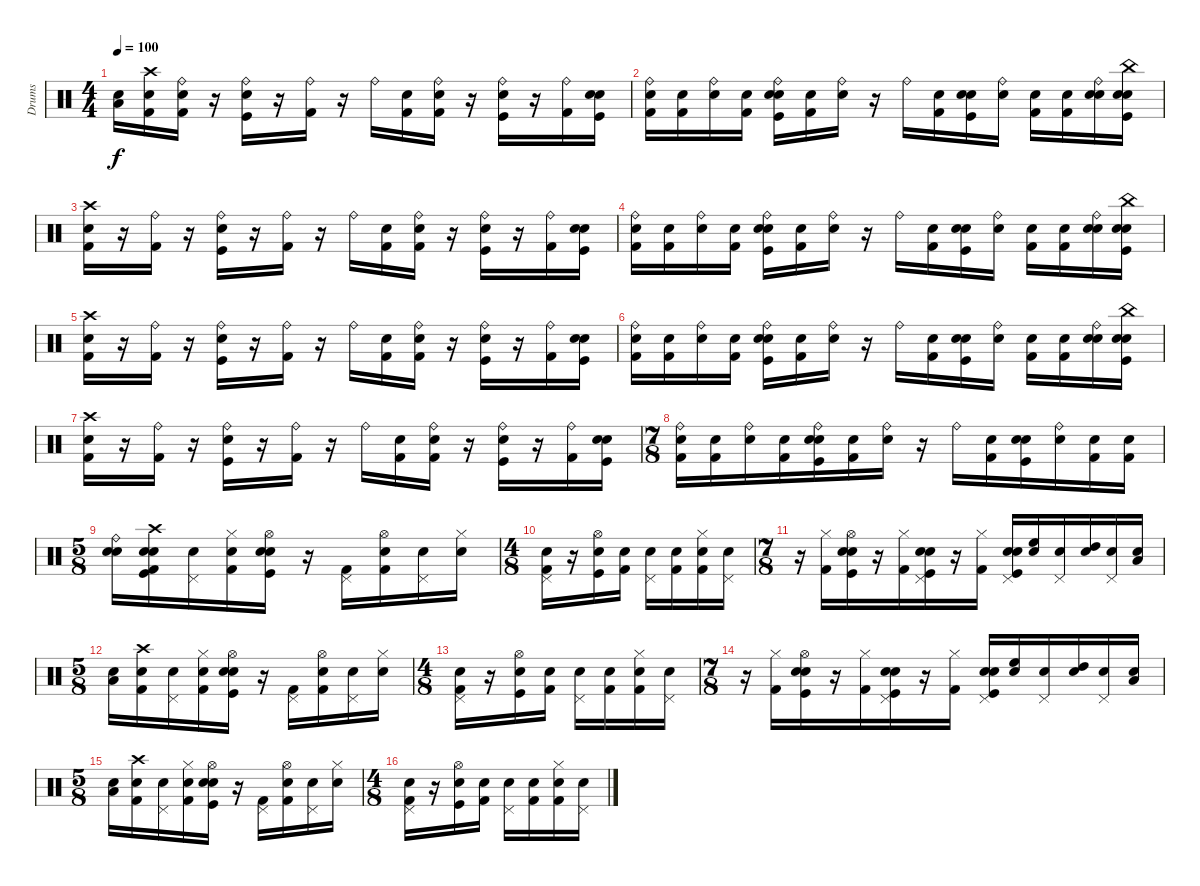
\track ("Drums" "Drums") {instrument percussion}
\staff {score}
\articulation defaults
\ts (4 4)
\tempo 100
\clef neutral
\ks c
("Snare (hit)" "Low Floor Tom (hit)").16{dy f} ("Snare (hit)" "Kick (hit) 2" "Crash high (hit)").16 ("Snare (hit)" "Ride (bell)" "Kick (hit) 2").16 r.16 ("Ride (bell)" "Kick (hit)" "Electric Snare (hit)").16 r.16 ("Ride (bell)" "Kick (hit) 2").16 r.16 "Ride (bell)".16 ("Snare (hit)" "Kick (hit) 2").16 ("Snare (hit)" "Kick (hit) 2" "Ride (bell)").16 r.16 ("Ride (bell)" "Kick (hit)" "Electric Snare (hit)").16 r.16 ("Ride (bell)" "Kick (hit) 2").16 ("Snare (hit)" "Kick (hit)" "Electric Snare (hit)").16 |
("Snare (hit)" "Kick (hit) 2" "Ride (bell)").16 ("Snare (hit)" "Kick (hit) 2").16 ("Snare (hit)" "Ride (bell)").16 ("Snare (hit)" "Kick (hit) 2").16 ("Snare (hit)" "Ride (bell)" "Kick (hit)" "Electric Snare (hit)").16 ("Snare (hit)" "Kick (hit) 2").16 ("Snare (hit)" "Ride (bell)").16 r.16 "Ride (bell)".16 ("Snare (hit)" "Kick (hit) 2").16 ("Snare (hit)" "Kick (hit)" "Electric Snare (hit)").16 ("Snare (hit)" "Ride (bell)").16 ("Snare (hit)" "Kick (hit) 2").16 ("Snare (hit)" "Kick (hit) 2").16 ("Snare (hit)" "Snare (hit) 2" "Ride (bell)").16 ("Snare (hit)" "Kick (hit)" "Electric Snare (hit)" "China (hit)").16 |
("Snare (hit)" "Kick (hit) 2" "Crash high (hit)").16 r.16 ("Ride (bell)" "Kick (hit) 2").16 r.16 ("Ride (bell)" "Kick (hit)" "Electric Snare (hit)").16 r.16 ("Ride (bell)" "Kick (hit) 2").16 r.16 "Ride (bell)".16 ("Snare (hit)" "Kick (hit) 2").16 ("Snare (hit)" "Kick (hit) 2" "Ride (bell)").16 r.16 ("Ride (bell)" "Kick (hit)" "Electric Snare (hit)").16 r.16 ("Ride (bell)" "Kick (hit) 2").16 ("Snare (hit)" "Kick (hit)" "Electric Snare (hit)").16 |
("Snare (hit)" "Kick (hit) 2" "Ride (bell)").16 ("Snare (hit)" "Kick (hit) 2").16 ("Snare (hit)" "Ride (bell)").16 ("Snare (hit)" "Kick (hit) 2").16 ("Snare (hit)" "Ride (bell)" "Kick (hit)" "Electric Snare (hit)").16 ("Snare (hit)" "Kick (hit) 2").16 ("Snare (hit)" "Ride (bell)").16 r.16 "Ride (bell)".16 ("Snare (hit)" "Kick (hit) 2").16 ("Snare (hit)" "Kick (hit)" "Electric Snare (hit)").16 ("Snare (hit)" "Ride (bell)").16 ("Snare (hit)" "Kick (hit) 2").16 ("Snare (hit)" "Kick (hit) 2").16 ("Snare (hit)" "Snare (hit) 2" "Ride (bell)").16 ("Snare (hit)" "Kick (hit)" "Electric Snare (hit)" "China (hit)").16 |
("Snare (hit)" "Kick (hit) 2" "Crash high (hit)").16 r.16 ("Ride (bell)" "Kick (hit) 2").16 r.16 ("Ride (bell)" "Kick (hit)" "Electric Snare (hit)").16 r.16 ("Ride (bell)" "Kick (hit) 2").16 r.16 "Ride (bell)".16 ("Snare (hit)" "Kick (hit) 2").16 ("Snare (hit)" "Kick (hit) 2" "Ride (bell)").16 r.16 ("Ride (bell)" "Kick (hit)" "Electric Snare (hit)").16 r.16 ("Ride (bell)" "Kick (hit) 2").16 ("Snare (hit)" "Kick (hit)" "Electric Snare (hit)").16 |
("Snare (hit)" "Kick (hit) 2" "Ride (bell)").16 ("Snare (hit)" "Kick (hit) 2").16 ("Snare (hit)" "Ride (bell)").16 ("Snare (hit)" "Kick (hit) 2").16 ("Snare (hit)" "Ride (bell)" "Kick (hit)" "Electric Snare (hit)").16 ("Snare (hit)" "Kick (hit) 2").16 ("Snare (hit)" "Ride (bell)").16 r.16 "Ride (bell)".16 ("Snare (hit)" "Kick (hit) 2").16 ("Snare (hit)" "Kick (hit)" "Electric Snare (hit)").16 ("Snare (hit)" "Ride (bell)").16 ("Snare (hit)" "Kick (hit) 2").16 ("Snare (hit)" "Kick (hit) 2").16 ("Snare (hit)" "Snare (hit) 2" "Ride (bell)").16 ("Snare (hit)" "Kick (hit)" "Electric Snare (hit)" "China (hit)").16 |
("Snare (hit)" "Kick (hit) 2" "Crash high (hit)").16 r.16 ("Ride (bell)" "Kick (hit) 2").16 r.16 ("Ride (bell)" "Kick (hit)" "Electric Snare (hit)").16 r.16 ("Ride (bell)" "Kick (hit) 2").16 r.16 "Ride (bell)".16 ("Snare (hit)" "Kick (hit) 2").16 ("Snare (hit)" "Kick (hit) 2" "Ride (bell)").16 r.16 ("Ride (bell)" "Kick (hit)" "Electric Snare (hit)").16 r.16 ("Ride (bell)" "Kick (hit) 2").16 ("Snare (hit)" "Kick (hit)" "Electric Snare (hit)").16 |
\ts (7 8)
("Snare (hit)" "Kick (hit) 2" "Ride (bell)").16 ("Snare (hit)" "Kick (hit) 2").16 ("Snare (hit)" "Ride (bell)").16 ("Snare (hit)" "Kick (hit) 2").16 ("Snare (hit)" "Ride (bell)" "Kick (hit)" "Electric Snare (hit)").16 ("Snare (hit)" "Kick (hit) 2").16 ("Snare (hit)" "Ride (bell)").16 r.16 "Ride (bell)".16 ("Snare (hit)" "Kick (hit) 2").16 ("Snare (hit)" "Kick (hit)" "Electric Snare (hit)").16 ("Snare (hit)" "Ride (bell)").16 ("Snare (hit)" "Kick (hit) 2").16 ("Snare (hit)" "Kick (hit) 2").16 |
\ts (5 8)
("Snare (hit)" "Snare (hit) 2" "Ride (bell)").16 ("Snare (hit)" "Kick (hit)" "Electric Snare (hit)" "Crash high (hit)" "Kick (hit) 2").16 ("Snare (hit)" "Pedal Hi-Hat (hit)").16 ("Snare (hit)" "Kick (hit) 2" "Hi-Hat (closed)").16 ("Snare (hit)" "Kick (hit)" "Electric Snare (hit)" "Hi-Hat (open)").16 r.16 ("Kick (hit) 2" "Pedal Hi-Hat (hit)").16 ("Snare (hit)" "Kick (hit) 2" "Hi-Hat (open)").16 ("Snare (hit)" "Pedal Hi-Hat (hit)").16 ("Snare (hit)" "Hi-Hat (closed)").16 |
\ts (4 8)
("Snare (hit)" "Kick (hit) 2" "Pedal Hi-Hat (hit)").16 r.16 ("Hi-Hat (open)" "Kick (hit)" "Electric Snare (hit)").16 ("Snare (hit)" "Kick (hit) 2").16 ("Snare (hit)" "Pedal Hi-Hat (hit)").16 ("Snare (hit)" "Kick (hit) 2").16 ("Snare (hit)" "Hi-Hat (closed)" "Kick (hit) 2").16 ("Snare (hit)" "Pedal Hi-Hat (hit)").16 |
\ts (7 8)
r.16 ("Kick (hit) 2" "Hi-Hat (closed)").16 ("Snare (hit)" "Hi-Hat (open)" "Kick (hit)" "Electric Snare (hit)").16 r.16 ("Hi-Hat (closed)" "Kick (hit) 2").16 ("Snare (hit)" "Kick (hit)" "Electric Snare (hit)" "Pedal Hi-Hat (hit)").16 r.16 ("Hi-Hat (closed)" "Kick (hit) 2").16 ("Snare (hit)" "Pedal Hi-Hat (hit)" "Kick (hit)" "Electric Snare (hit)").16 ("Snare (hit)" "High Floor Tom (hit)").16 ("Snare (hit)" "Pedal Hi-Hat (hit)").16 ("Snare (hit)" "High Tom (hit)").16 ("Snare (hit)" "Pedal Hi-Hat (hit)").16 ("Snare (hit)" "Low Tom (hit)").16 |
\ts (5 8)
("Snare (hit)" "Low Floor Tom (hit)").16 ("Snare (hit)" "Crash high (hit)" "Kick (hit) 2").16 ("Snare (hit)" "Pedal Hi-Hat (hit)").16 ("Snare (hit)" "Kick (hit) 2" "Hi-Hat (closed)").16 ("Snare (hit)" "Kick (hit)" "Electric Snare (hit)" "Hi-Hat (open)").16 r.16 ("Kick (hit) 2" "Pedal Hi-Hat (hit)").16 ("Snare (hit)" "Kick (hit) 2" "Hi-Hat (open)").16 ("Snare (hit)" "Pedal Hi-Hat (hit)").16 ("Snare (hit)" "Hi-Hat (closed)").16 |
\ts (4 8)
("Snare (hit)" "Kick (hit) 2" "Pedal Hi-Hat (hit)").16 r.16 ("Hi-Hat (open)" "Kick (hit)" "Electric Snare (hit)").16 ("Snare (hit)" "Kick (hit) 2").16 ("Snare (hit)" "Pedal Hi-Hat (hit)").16 ("Snare (hit)" "Kick (hit) 2").16 ("Snare (hit)" "Hi-Hat (closed)" "Kick (hit) 2").16 ("Snare (hit)" "Pedal Hi-Hat (hit)").16 |
\ts (7 8)
r.16 ("Kick (hit) 2" "Hi-Hat (closed)").16 ("Snare (hit)" "Hi-Hat (open)" "Kick (hit)" "Electric Snare (hit)").16 r.16 ("Hi-Hat (closed)" "Kick (hit) 2").16 ("Snare (hit)" "Kick (hit)" "Electric Snare (hit)" "Pedal Hi-Hat (hit)").16 r.16 ("Hi-Hat (closed)" "Kick (hit) 2").16 ("Snare (hit)" "Pedal Hi-Hat (hit)" "Kick (hit)" "Electric Snare (hit)").16 ("Snare (hit)" "High Floor Tom (hit)").16 ("Snare (hit)" "Pedal Hi-Hat (hit)").16 ("Snare (hit)" "High Tom (hit)").16 ("Snare (hit)" "Pedal Hi-Hat (hit)").16 ("Snare (hit)" "Low Tom (hit)").16 |
\ts (5 8)
("Snare (hit)" "Low Floor Tom (hit)").16 ("Snare (hit)" "Crash high (hit)" "Kick (hit) 2").16 ("Snare (hit)" "Pedal Hi-Hat (hit)").16 ("Snare (hit)" "Kick (hit) 2" "Hi-Hat (closed)").16 ("Snare (hit)" "Kick (hit)" "Electric Snare (hit)" "Hi-Hat (open)").16 r.16 ("Kick (hit) 2" "Pedal Hi-Hat (hit)").16 ("Snare (hit)" "Kick (hit) 2" "Hi-Hat (open)").16 ("Snare (hit)" "Pedal Hi-Hat (hit)").16 ("Snare (hit)" "Hi-Hat (closed)").16 |
\ts (4 8)
("Snare (hit)" "Kick (hit) 2" "Pedal Hi-Hat (hit)").16 r.16 ("Hi-Hat (open)" "Kick (hit)" "Electric Snare (hit)").16 ("Snare (hit)" "Kick (hit) 2").16 ("Snare (hit)" "Pedal Hi-Hat (hit)").16 ("Snare (hit)" "Kick (hit) 2").16 ("Snare (hit)" "Hi-Hat (closed)" "Kick (hit) 2").16 ("Snare (hit)" "Pedal Hi-Hat (hit)").16
